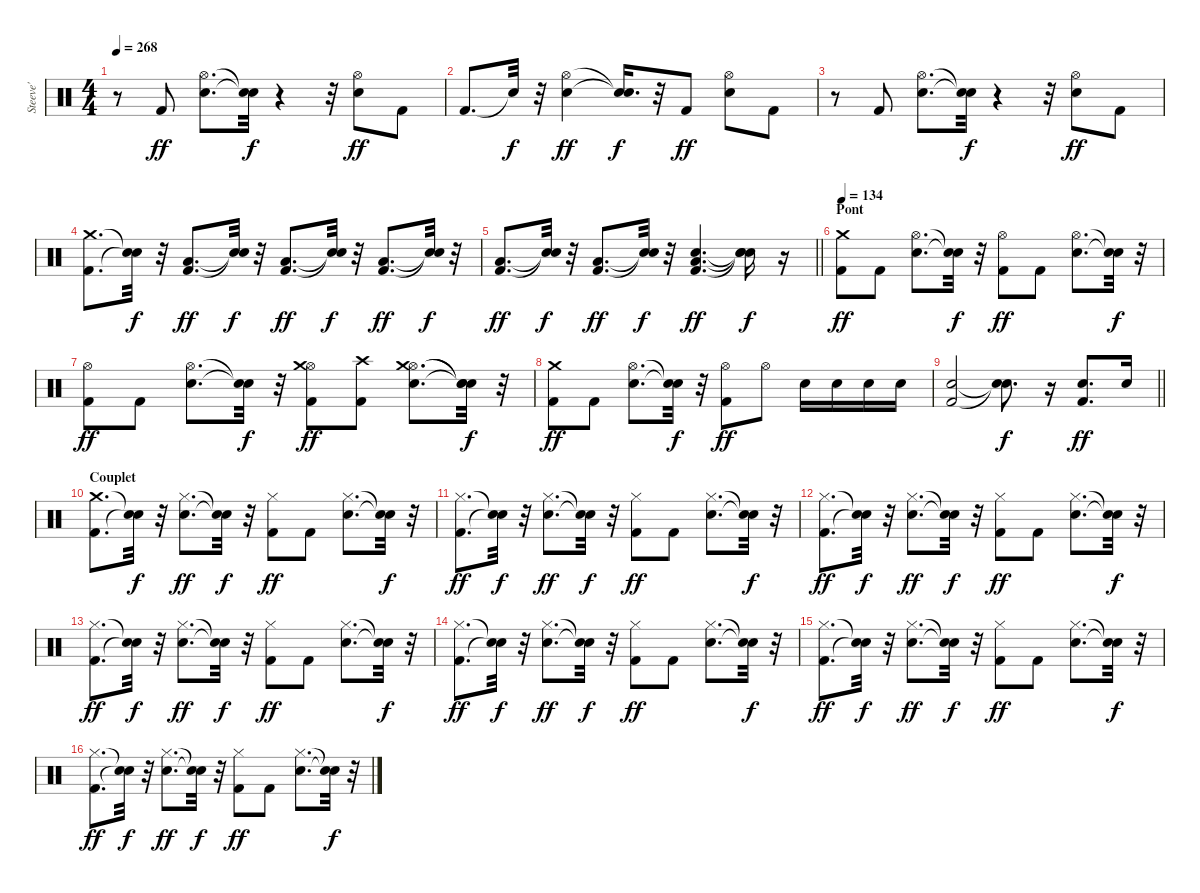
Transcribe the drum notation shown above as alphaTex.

\track ("Steeve'" "Steeve'") {instrument percussion}
\staff {score}
\articulation defaults
\ts (4 4)
\tempo 268
\clef neutral
\ks c
r.8{dy f} "Kick (hit) 2".8{dy ff} ("Electric Snare (hit)" "Hi-Hat (open)").8{d} ("Snare (hit)"{t} "Snare (hit)"{t}).32{dy f} r.4 r.32 ("Electric Snare (hit)" "Hi-Hat (open)").8{dy ff} "Kick (hit) 2".8 |
"Kick (hit) 2".8{d} "Snare (hit)"{t}.32{dy f} r.32 ("Electric Snare (hit)" "Hi-Hat (open)").4{dy ff} ("Snare (hit)"{t} "Snare (hit)"{t}).16{d dy f} r.32 "Kick (hit) 2".8{dy ff} ("Electric Snare (hit)" "Hi-Hat (open)").8 "Kick (hit) 2".8 |
r.8 "Kick (hit) 2".8 ("Electric Snare (hit)" "Hi-Hat (open)").8{d} ("Snare (hit)"{t} "Snare (hit)"{t}).32{dy f} r.4 r.32 ("Electric Snare (hit)" "Hi-Hat (open)").8{dy ff} "Kick (hit) 2".8 |
("Kick (hit) 2" "Crash medium (hit)").8{d} ("Snare (hit)"{t} "Snare (hit)"{t}).32{dy f} r.32 ("Kick (hit) 2" "Low Floor Tom (hit)").8{d dy ff} ("Snare (hit)"{t} "Snare (hit)"{t}).32{dy f} r.32 ("Kick (hit) 2" "Low Floor Tom (hit)").8{d dy ff} ("Snare (hit)"{t} "Snare (hit)"{t}).32{dy f} r.32 ("Kick (hit) 2" "Low Floor Tom (hit)").8{d dy ff} ("Snare (hit)"{t} "Snare (hit)"{t}).32{dy f} r.32 |
\barLineRight lightlight
("Kick (hit) 2" "Low Floor Tom (hit)").8{d dy ff} ("Snare (hit)"{t} "Snare (hit)"{t}).32{dy f} r.32 ("Kick (hit) 2" "Low Floor Tom (hit)").8{d dy ff} ("Snare (hit)"{t} "Snare (hit)"{t}).32{dy f} r.32 ("Kick (hit) 2" "Electric Snare (hit)" "Low Floor Tom (hit)").4{d dy ff} ("Snare (hit)"{t} "Snare (hit)"{t} "Snare (hit)"{t}).16{dy f} r.16 |
\section ("" "Pont")
\tempo 134
("Kick (hit) 2" "Crash medium (hit)").8{dy ff} "Kick (hit) 2".8 ("Electric Snare (hit)" "Hi-Hat (open)").8{d} ("Snare (hit)"{t} "Snare (hit)"{t}).32{dy f} r.32 ("Kick (hit) 2" "Hi-Hat (open)").8{dy ff} "Kick (hit) 2".8 ("Electric Snare (hit)" "Hi-Hat (open)").8{d} ("Snare (hit)"{t} "Snare (hit)"{t}).32{dy f} r.32 |
("Kick (hit) 2" "Hi-Hat (open)").8{dy ff} "Kick (hit) 2".8 ("Electric Snare (hit)" "Hi-Hat (open)").8{d} ("Snare (hit)"{t} "Snare (hit)"{t}).32{dy f} r.32 ("Kick (hit) 2" "Hi-Hat (open)" "Crash medium (hit)").8{dy ff} ("Kick (hit) 2" "Crash high (hit)").8 ("Electric Snare (hit)" "Hi-Hat (open)" "Crash medium (hit)").8{d} ("Snare (hit)"{t} "Snare (hit)"{t} "Snare (hit)"{t}).32{dy f} r.32 |
("Kick (hit) 2" "Crash medium (hit)").8{dy ff} "Kick (hit) 2".8 ("Electric Snare (hit)" "Hi-Hat (open)").8{d} ("Snare (hit)"{t} "Snare (hit)"{t}).32{dy f} r.32 ("Kick (hit) 2" "Hi-Hat (open)").8{dy ff} "Hi-Hat (open)".8 "Electric Snare (hit)".16 "Electric Snare (hit)".16 "Electric Snare (hit)".16 "Electric Snare (hit)".16 |
\barLineRight lightlight
("Kick (hit) 2" "Electric Snare (hit)").2 ("Snare (hit)"{t} "Snare (hit)"{t}).8{d dy f} r.16 ("Kick (hit) 2" "Electric Snare (hit)").8{d dy ff} "Electric Snare (hit)".16 |
\section ("" "Couplet")
("Kick (hit) 2" "Crash medium (hit)").8{d} ("Snare (hit)"{t} "Snare (hit)"{t}).32{dy f} r.32 ("Electric Snare (hit)" "Hi-Hat (closed)").8{d dy ff} ("Snare (hit)"{t} "Snare (hit)"{t}).32{dy f} r.32 ("Kick (hit) 2" "Hi-Hat (closed)").8{dy ff} "Kick (hit) 2".8 ("Electric Snare (hit)" "Hi-Hat (closed)").8{d} ("Snare (hit)"{t} "Snare (hit)"{t}).32{dy f} r.32 |
("Kick (hit) 2" "Hi-Hat (closed)").8{d dy ff} ("Snare (hit)"{t} "Snare (hit)"{t}).32{dy f} r.32 ("Electric Snare (hit)" "Hi-Hat (closed)").8{d dy ff} ("Snare (hit)"{t} "Snare (hit)"{t}).32{dy f} r.32 ("Kick (hit) 2" "Hi-Hat (closed)").8{dy ff} "Kick (hit) 2".8 ("Electric Snare (hit)" "Hi-Hat (closed)").8{d} ("Snare (hit)"{t} "Snare (hit)"{t}).32{dy f} r.32 |
("Kick (hit) 2" "Hi-Hat (closed)").8{d dy ff} ("Snare (hit)"{t} "Snare (hit)"{t}).32{dy f} r.32 ("Electric Snare (hit)" "Hi-Hat (closed)").8{d dy ff} ("Snare (hit)"{t} "Snare (hit)"{t}).32{dy f} r.32 ("Kick (hit) 2" "Hi-Hat (closed)").8{dy ff} "Kick (hit) 2".8 ("Electric Snare (hit)" "Hi-Hat (closed)").8{d} ("Snare (hit)"{t} "Snare (hit)"{t}).32{dy f} r.32 |
("Kick (hit) 2" "Hi-Hat (closed)").8{d dy ff} ("Snare (hit)"{t} "Snare (hit)"{t}).32{dy f} r.32 ("Electric Snare (hit)" "Hi-Hat (closed)").8{d dy ff} ("Snare (hit)"{t} "Snare (hit)"{t}).32{dy f} r.32 ("Kick (hit) 2" "Hi-Hat (closed)").8{dy ff} "Kick (hit) 2".8 ("Electric Snare (hit)" "Hi-Hat (closed)").8{d} ("Snare (hit)"{t} "Snare (hit)"{t}).32{dy f} r.32 |
("Kick (hit) 2" "Hi-Hat (closed)").8{d dy ff} ("Snare (hit)"{t} "Snare (hit)"{t}).32{dy f} r.32 ("Electric Snare (hit)" "Hi-Hat (closed)").8{d dy ff} ("Snare (hit)"{t} "Snare (hit)"{t}).32{dy f} r.32 ("Kick (hit) 2" "Hi-Hat (closed)").8{dy ff} "Kick (hit) 2".8 ("Electric Snare (hit)" "Hi-Hat (closed)").8{d} ("Snare (hit)"{t} "Snare (hit)"{t}).32{dy f} r.32 |
("Kick (hit) 2" "Hi-Hat (closed)").8{d dy ff} ("Snare (hit)"{t} "Snare (hit)"{t}).32{dy f} r.32 ("Electric Snare (hit)" "Hi-Hat (closed)").8{d dy ff} ("Snare (hit)"{t} "Snare (hit)"{t}).32{dy f} r.32 ("Kick (hit) 2" "Hi-Hat (closed)").8{dy ff} "Kick (hit) 2".8 ("Electric Snare (hit)" "Hi-Hat (closed)").8{d} ("Snare (hit)"{t} "Snare (hit)"{t}).32{dy f} r.32 |
("Kick (hit) 2" "Hi-Hat (closed)").8{d dy ff} ("Snare (hit)"{t} "Snare (hit)"{t}).32{dy f} r.32 ("Electric Snare (hit)" "Hi-Hat (closed)").8{d dy ff} ("Snare (hit)"{t} "Snare (hit)"{t}).32{dy f} r.32 ("Kick (hit) 2" "Hi-Hat (closed)").8{dy ff} "Kick (hit) 2".8 ("Electric Snare (hit)" "Hi-Hat (closed)").8{d} ("Snare (hit)"{t} "Snare (hit)"{t}).32{dy f} r.32
